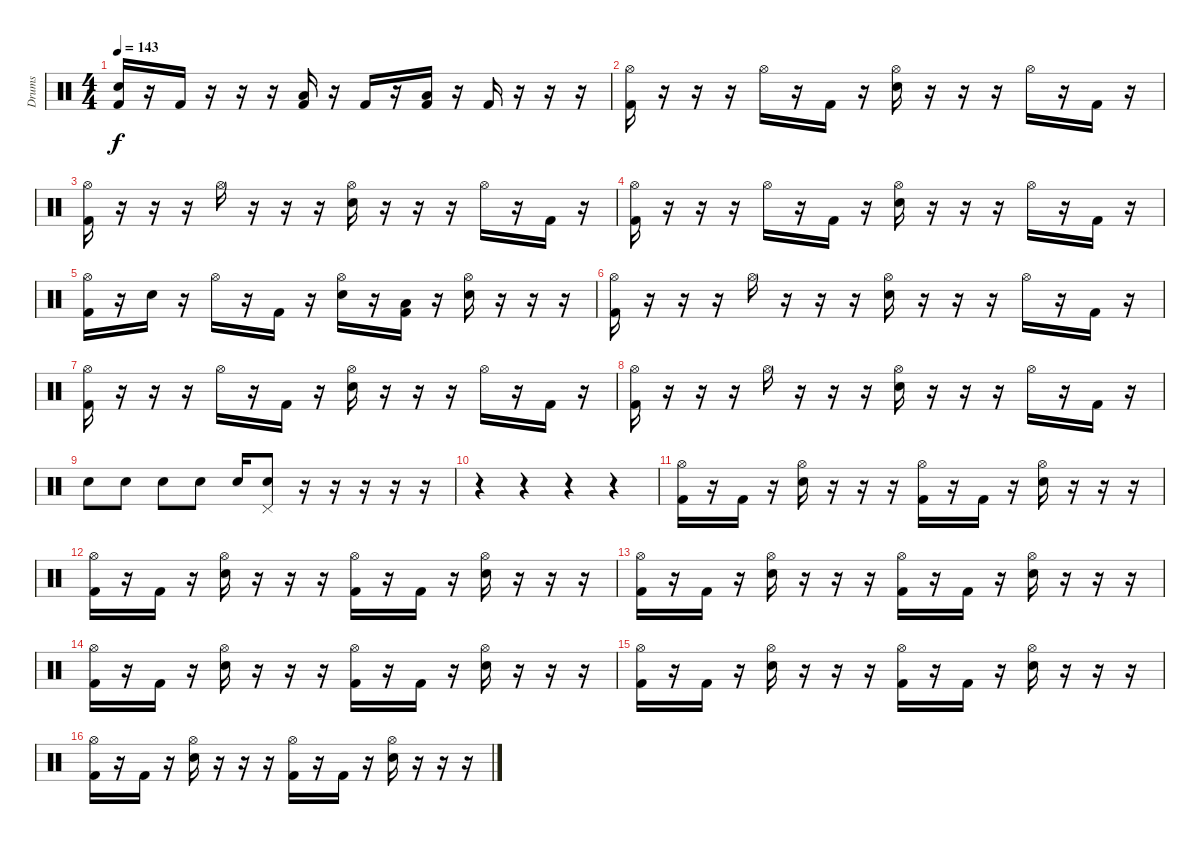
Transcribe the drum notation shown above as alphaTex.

\track ("Drums" "Drums") {instrument percussion}
\staff {score}
\articulation defaults
\ts (4 4)
\tempo 143
\clef neutral
\ks c
("Kick (hit) 2" "Electric Snare (hit)").16{dy f} r.16 "Kick (hit) 2".16 r.16 r.16 r.16 ("Kick (hit) 2" "Low Tom (hit)").16 r.16 "Kick (hit) 2".16 r.16 ("Kick (hit) 2" "Low Tom (hit)").16 r.16 "Kick (hit) 2".16 r.16 r.16 r.16 |
("Kick (hit) 2" "Hi-Hat (open)").16 r.16 r.16 r.16 "Hi-Hat (open)".16 r.16 "Kick (hit) 2".16 r.16 ("Electric Snare (hit)" "Hi-Hat (open)").16 r.16 r.16 r.16 "Hi-Hat (open)".16 r.16 "Kick (hit) 2".16 r.16 |
("Kick (hit) 2" "Hi-Hat (open)").16 r.16 r.16 r.16 "Hi-Hat (open)".16 r.16 r.16 r.16 ("Electric Snare (hit)" "Hi-Hat (open)").16 r.16 r.16 r.16 "Hi-Hat (open)".16 r.16 "Kick (hit) 2".16 r.16 |
("Kick (hit) 2" "Hi-Hat (open)").16 r.16 r.16 r.16 "Hi-Hat (open)".16 r.16 "Kick (hit) 2".16 r.16 ("Electric Snare (hit)" "Hi-Hat (open)").16 r.16 r.16 r.16 "Hi-Hat (open)".16 r.16 "Kick (hit) 2".16 r.16 |
("Kick (hit) 2" "Hi-Hat (open)").16 r.16 "Electric Snare (hit)".16 r.16 "Hi-Hat (open)".16 r.16 "Kick (hit) 2".16 r.16 ("Electric Snare (hit)" "Hi-Hat (open)").16 r.16 ("Kick (hit) 2" "Low Tom (hit)").16 r.16 ("Electric Snare (hit)" "Hi-Hat (open)").16 r.16 r.16 r.16 |
("Kick (hit) 2" "Hi-Hat (open)").16 r.16 r.16 r.16 "Hi-Hat (open)".16 r.16 r.16 r.16 ("Electric Snare (hit)" "Hi-Hat (open)").16 r.16 r.16 r.16 "Hi-Hat (open)".16 r.16 "Kick (hit) 2".16 r.16 |
("Kick (hit) 2" "Hi-Hat (open)").16 r.16 r.16 r.16 "Hi-Hat (open)".16 r.16 "Kick (hit) 2".16 r.16 ("Electric Snare (hit)" "Hi-Hat (open)").16 r.16 r.16 r.16 "Hi-Hat (open)".16 r.16 "Kick (hit) 2".16 r.16 |
("Kick (hit) 2" "Hi-Hat (open)").16 r.16 r.16 r.16 "Hi-Hat (open)".16 r.16 r.16 r.16 ("Electric Snare (hit)" "Hi-Hat (open)").16 r.16 r.16 r.16 "Hi-Hat (open)".16 r.16 "Kick (hit) 2".16 r.16 |
"Electric Snare (hit)".8 "Electric Snare (hit)".8 "Electric Snare (hit)".8 "Electric Snare (hit)".8 "Electric Snare (hit)".16 ("Electric Snare (hit)" "Pedal Hi-Hat (hit)").8 r.16 r.16 r.16 r.16 r.16 |
r.4 r.4 r.4 r.4 |
("Kick (hit) 2" "Hi-Hat (open)").16 r.16 "Kick (hit) 2".16 r.16 ("Electric Snare (hit)" "Hi-Hat (open)").16 r.16 r.16 r.16 ("Kick (hit) 2" "Hi-Hat (open)").16 r.16 "Kick (hit) 2".16 r.16 ("Electric Snare (hit)" "Hi-Hat (open)").16 r.16 r.16 r.16 |
("Kick (hit) 2" "Hi-Hat (open)").16 r.16 "Kick (hit) 2".16 r.16 ("Electric Snare (hit)" "Hi-Hat (open)").16 r.16 r.16 r.16 ("Kick (hit) 2" "Hi-Hat (open)").16 r.16 "Kick (hit) 2".16 r.16 ("Electric Snare (hit)" "Hi-Hat (open)").16 r.16 r.16 r.16 |
("Kick (hit) 2" "Hi-Hat (open)").16 r.16 "Kick (hit) 2".16 r.16 ("Electric Snare (hit)" "Hi-Hat (open)").16 r.16 r.16 r.16 ("Kick (hit) 2" "Hi-Hat (open)").16 r.16 "Kick (hit) 2".16 r.16 ("Electric Snare (hit)" "Hi-Hat (open)").16 r.16 r.16 r.16 |
("Kick (hit) 2" "Hi-Hat (open)").16 r.16 "Kick (hit) 2".16 r.16 ("Electric Snare (hit)" "Hi-Hat (open)").16 r.16 r.16 r.16 ("Kick (hit) 2" "Hi-Hat (open)").16 r.16 "Kick (hit) 2".16 r.16 ("Electric Snare (hit)" "Hi-Hat (open)").16 r.16 r.16 r.16 |
("Kick (hit) 2" "Hi-Hat (open)").16 r.16 "Kick (hit) 2".16 r.16 ("Electric Snare (hit)" "Hi-Hat (open)").16 r.16 r.16 r.16 ("Kick (hit) 2" "Hi-Hat (open)").16 r.16 "Kick (hit) 2".16 r.16 ("Electric Snare (hit)" "Hi-Hat (open)").16 r.16 r.16 r.16 |
("Kick (hit) 2" "Hi-Hat (open)").16 r.16 "Kick (hit) 2".16 r.16 ("Electric Snare (hit)" "Hi-Hat (open)").16 r.16 r.16 r.16 ("Kick (hit) 2" "Hi-Hat (open)").16 r.16 "Kick (hit) 2".16 r.16 ("Electric Snare (hit)" "Hi-Hat (open)").16 r.16 r.16 r.16
